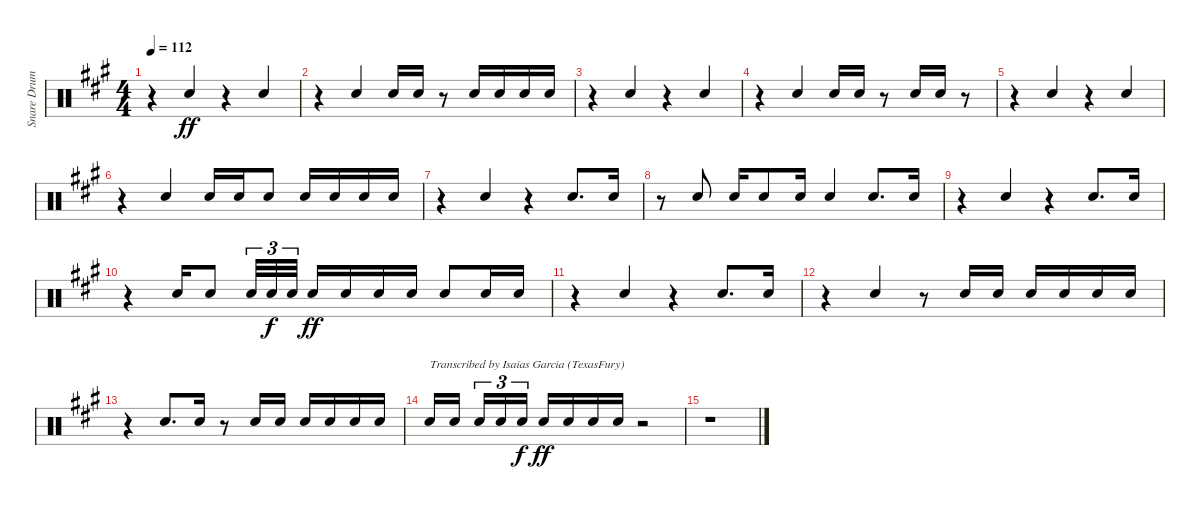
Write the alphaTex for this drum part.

\track ("Snare Drum" "Snare Drum") {instrument percussion}
\staff {score}
\articulation defaults
\ts (4 4)
\tempo 112
\clef neutral
\ks f#minor
r.4{dy ff} "Electric Snare (hit)".4{beam Up} r.4 "Electric Snare (hit)".4{beam Up} |
r.4 "Electric Snare (hit)".4{beam Up} "Electric Snare (hit)".16{beam Up} "Electric Snare (hit)".16{beam Up} r.8 "Electric Snare (hit)".16{beam Up} "Electric Snare (hit)".16{beam Up} "Electric Snare (hit)".16{beam Up} "Electric Snare (hit)".16{beam Up} |
r.4 "Electric Snare (hit)".4{beam Up} r.4 "Electric Snare (hit)".4{beam Up} |
r.4 "Electric Snare (hit)".4{beam Up} "Electric Snare (hit)".16{beam Up} "Electric Snare (hit)".16{beam Up} r.8 "Electric Snare (hit)".16{beam Up} "Electric Snare (hit)".16{beam Up} r.8 |
r.4 "Electric Snare (hit)".4{beam Up} r.4 "Electric Snare (hit)".4{beam Up} |
r.4 "Electric Snare (hit)".4{beam Up} "Electric Snare (hit)".16{beam Up} "Electric Snare (hit)".16{beam Up} "Electric Snare (hit)".8{beam Up} "Electric Snare (hit)".16{beam Up} "Electric Snare (hit)".16{beam Up} "Electric Snare (hit)".16{beam Up} "Electric Snare (hit)".16{beam Up} |
r.4 "Electric Snare (hit)".4{beam Up} r.4 "Electric Snare (hit)".8{d beam Up} "Electric Snare (hit)".16{beam Up} |
r.8 "Electric Snare (hit)".8{beam Up} "Electric Snare (hit)".16{beam Up} "Electric Snare (hit)".8{beam Up} "Electric Snare (hit)".16{beam Up} "Electric Snare (hit)".4{beam Up} "Electric Snare (hit)".8{d beam Up} "Electric Snare (hit)".16{beam Up} |
r.4 "Electric Snare (hit)".4{beam Up} r.4 "Electric Snare (hit)".8{d beam Up} "Electric Snare (hit)".16{beam Up} |
r.4 "Electric Snare (hit)".16{beam Up} "Electric Snare (hit)".8{beam Up} "Electric Snare (hit)".32{tu (3 2) beam Up} "Electric Snare (hit)".32{tu (3 2) dy f beam Up} "Electric Snare (hit)".32{tu (3 2) beam Up} "Electric Snare (hit)".16{dy ff beam Up} "Electric Snare (hit)".16{beam Up} "Electric Snare (hit)".16{beam Up} "Electric Snare (hit)".16{beam Up} "Electric Snare (hit)".8{beam Up} "Electric Snare (hit)".16{beam Up} "Electric Snare (hit)".16{beam Up} |
r.4 "Electric Snare (hit)".4{beam Up} r.4 "Electric Snare (hit)".8{d beam Up} "Electric Snare (hit)".16{beam Up} |
r.4 "Electric Snare (hit)".4{beam Up} r.8 "Electric Snare (hit)".16{beam Up} "Electric Snare (hit)".16{beam Up} "Electric Snare (hit)".16{beam Up} "Electric Snare (hit)".16{beam Up} "Electric Snare (hit)".16{beam Up} "Electric Snare (hit)".16{beam Up} |
r.4 "Electric Snare (hit)".8{d beam Up} "Electric Snare (hit)".16{beam Up} r.8 "Electric Snare (hit)".16{beam Up} "Electric Snare (hit)".16{beam Up} "Electric Snare (hit)".16{beam Up} "Electric Snare (hit)".16{beam Up} "Electric Snare (hit)".16{beam Up} "Electric Snare (hit)".16{beam Up} |
"Electric Snare (hit)".16{txt "Transcribed by Isaias Garcia (TexasFury)" beam Up} "Electric Snare (hit)".16{beam Up beam splitsecondary} "Electric Snare (hit)".16{tu (3 2) beam Up} "Electric Snare (hit)".16{tu (3 2) beam Up} "Electric Snare (hit)".16{tu (3 2) dy f beam Up} "Electric Snare (hit)".16{dy ff beam Up} "Electric Snare (hit)".16{beam Up} "Electric Snare (hit)".16{beam Up} "Electric Snare (hit)".16{beam Up} r.2 |
r.1
